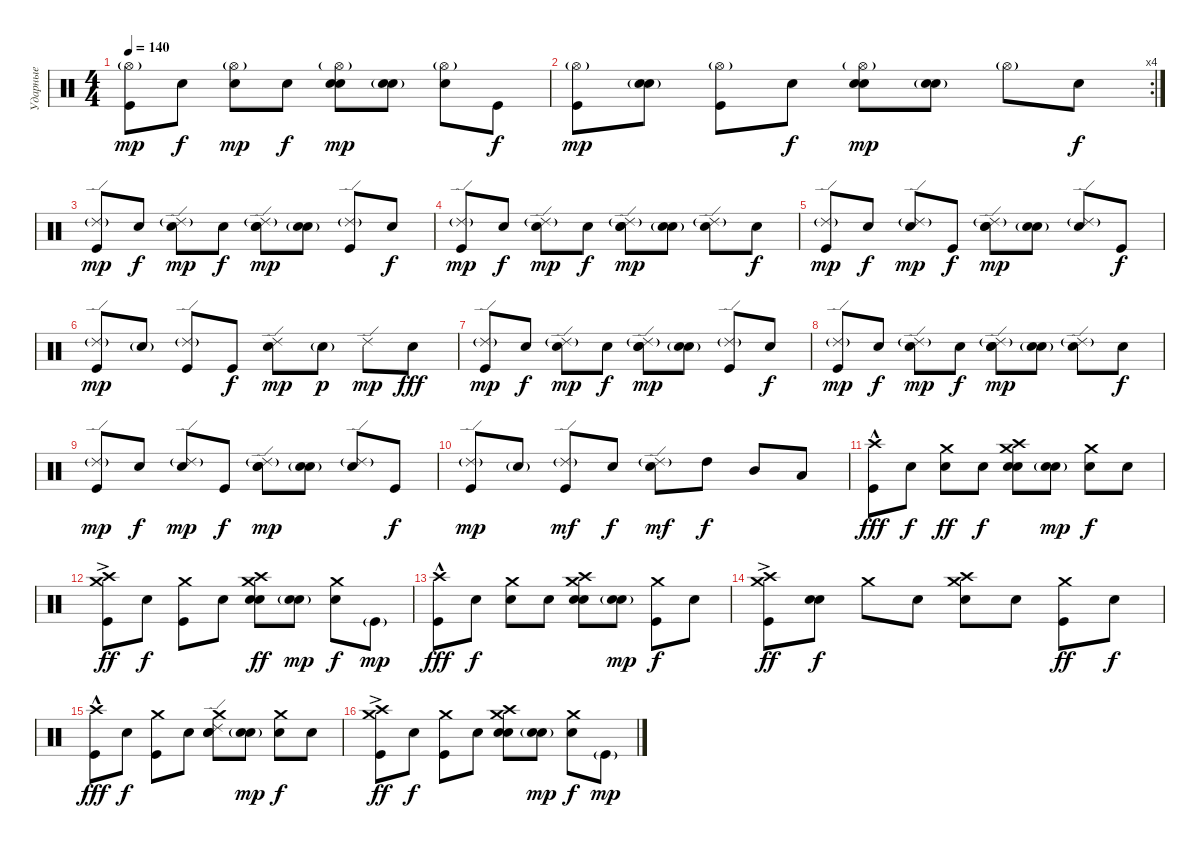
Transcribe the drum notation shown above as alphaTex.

\track ("Ударные" "Ударные") {instrument percussion}
\staff
\articulation defaults
\ts (4 4)
\tempo 140
\clef neutral
\ks c
("Hi-Hat (open)"{g} "Kick (hit)").8{dy mp} "Snare (hit)".8{dy f} ("Hi-Hat (open)"{g} "Snare (hit)").8{dy mp} "Snare (hit)".8{dy f} ("Hi-Hat (open)"{g} "Electric Snare (hit)" "Snare (hit)").8{dy mp} ("Electric Snare (hit)"{g} "Snare (hit)").8 ("Hi-Hat (open)"{g} "Snare (hit)").8 "Kick (hit)".8{dy f} |
\rc 4
("Hi-Hat (open)"{g} "Kick (hit)").8{dy mp} ("Electric Snare (hit)"{g} "Snare (hit)").8 ("Hi-Hat (open)"{g} "Kick (hit)").8 "Snare (hit)".8{dy f} ("Hi-Hat (open)"{g} "Electric Snare (hit)" "Snare (hit)").8{dy mp} ("Electric Snare (hit)"{g} "Snare (hit)").8 "Hi-Hat (open)"{g}.8 "Snare (hit)".8{dy f} |
("Ride (edge) 2"{g} "Kick (hit)").8{dy mp} "Snare (hit)".8{dy f} ("Ride (edge) 2"{g} "Snare (hit)").8{dy mp} "Snare (hit)".8{dy f} ("Ride (edge) 2"{g} "Electric Snare (hit)" "Snare (hit)").8{dy mp} ("Electric Snare (hit)"{g} "Snare (hit)").8 ("Ride (edge) 2"{g} "Kick (hit)").8 "Snare (hit)".8{dy f} |
("Ride (edge) 2"{g} "Kick (hit)").8{dy mp} "Snare (hit)".8{dy f} ("Ride (edge) 2"{g} "Snare (hit)").8{dy mp} "Snare (hit)".8{dy f} ("Ride (edge) 2"{g} "Electric Snare (hit)" "Snare (hit)").8{dy mp} ("Electric Snare (hit)"{g} "Snare (hit)").8 ("Ride (edge) 2"{g} "Snare (hit)").8 "Snare (hit)".8{dy f} |
("Ride (edge) 2"{g} "Kick (hit)").8{dy mp} "Snare (hit)".8{dy f} ("Ride (edge) 2"{g} "Snare (hit)").8{dy mp} "Kick (hit)".8{dy f} ("Ride (edge) 2"{g} "Electric Snare (hit)" "Snare (hit)").8{dy mp} ("Electric Snare (hit)"{g} "Snare (hit)").8 ("Ride (edge) 2"{g} "Snare (hit)").8 "Kick (hit)".8{dy f} |
("Ride (edge) 2"{g} "Kick (hit)").8{dy mp} "Electric Snare (hit)"{g}.8 ("Ride (edge) 2"{g} "Kick (hit)").8 "Kick (hit)".8{dy f} ("Ride (edge) 2" "Electric Snare (hit)").8{dy mp} "Electric Snare (hit)"{g}.8{dy p} "Ride (edge) 2".8{dy mp} "Snare (hit)".8{dy fff} |
("Ride (edge) 2"{g} "Kick (hit)").8{dy mp} "Snare (hit)".8{dy f} ("Ride (edge) 2"{g} "Snare (hit)").8{dy mp} "Snare (hit)".8{dy f} ("Ride (edge) 2"{g} "Electric Snare (hit)" "Snare (hit)").8{dy mp} ("Electric Snare (hit)"{g} "Snare (hit)").8 ("Ride (edge) 2"{g} "Kick (hit)").8 "Snare (hit)".8{dy f} |
("Ride (edge) 2"{g} "Kick (hit)").8{dy mp} "Snare (hit)".8{dy f} ("Ride (edge) 2"{g} "Snare (hit)").8{dy mp} "Snare (hit)".8{dy f} ("Ride (edge) 2"{g} "Electric Snare (hit)" "Snare (hit)").8{dy mp} ("Electric Snare (hit)"{g} "Snare (hit)").8 ("Ride (edge) 2"{g} "Snare (hit)").8 "Snare (hit)".8{dy f} |
("Ride (edge) 2"{g} "Kick (hit)").8{dy mp} "Snare (hit)".8{dy f} ("Ride (edge) 2"{g} "Snare (hit)").8{dy mp} "Kick (hit)".8{dy f} ("Ride (edge) 2"{g} "Electric Snare (hit)" "Snare (hit)").8{dy mp} ("Electric Snare (hit)"{g} "Snare (hit)").8 ("Ride (edge) 2"{g} "Snare (hit)").8 "Kick (hit)".8{dy f} |
("Ride (edge) 2"{g} "Kick (hit)").8{dy mp} "Electric Snare (hit)"{g}.8 ("Ride (edge) 2"{g} "Kick (hit)").8{dy mf} "Snare (hit)".8{dy f} ("Ride (edge) 2"{g} "Electric Snare (hit)").8{dy mf} "High Tom (hit)".8{dy f} "Mid Tom (hit)".8 "Low Tom (hit)".8 |
("Crash high (hit)" "Kick (hit)"{hac}).8{dy fff} "Snare (hit)".8{dy f} ("Crash medium (hit)" "Snare (hit)").8{dy ff} "Snare (hit)".8{dy f} ("Crash high (hit)" "Crash medium (hit)" "Electric Snare (hit)" "Snare (hit)").8 ("Electric Snare (hit)"{g} "Snare (hit)").8{dy mp} ("Crash medium (hit)" "Snare (hit)").8{dy f} "Snare (hit)".8 |
("Crash high (hit)" "Crash medium (hit)" "Kick (hit)"{ac}).8{dy ff} "Snare (hit)".8{dy f} ("Crash medium (hit)" "Kick (hit)").8 "Snare (hit)".8 ("Crash high (hit)" "Crash medium (hit)" "Electric Snare (hit)" "Snare (hit)").8{dy ff} ("Electric Snare (hit)"{g} "Snare (hit)").8{dy mp} ("Crash medium (hit)" "Snare (hit)").8{dy f} "Kick (hit)"{g}.8{dy mp} |
("Crash high (hit)" "Kick (hit)"{hac}).8{dy fff} "Snare (hit)".8{dy f} ("Crash medium (hit)" "Snare (hit)").8 "Snare (hit)".8 ("Crash high (hit)" "Crash medium (hit)" "Electric Snare (hit)" "Snare (hit)").8 ("Electric Snare (hit)"{g} "Snare (hit)").8{dy mp} ("Crash medium (hit)" "Kick (hit)").8{dy f} "Snare (hit)".8 |
("Crash high (hit)" "Crash medium (hit)" "Kick (hit)"{ac}).8{dy ff} ("Snare (hit)" "Electric Snare (hit)").8{dy f} "Crash medium (hit)".8 "Snare (hit)".8 ("Crash high (hit)" "Crash medium (hit)" "Electric Snare (hit)").8 "Snare (hit)".8 ("Crash medium (hit)" "Kick (hit)").8{dy ff} "Snare (hit)".8{dy f} |
("Crash high (hit)" "Kick (hit)"{hac}).8{dy fff} "Snare (hit)".8{dy f} ("Crash medium (hit)" "Kick (hit)").8 "Snare (hit)".8 ("Ride (edge) 2" "Crash medium (hit)" "Electric Snare (hit)" "Snare (hit)").8 ("Electric Snare (hit)"{g} "Snare (hit)").8{dy mp} ("Crash medium (hit)" "Snare (hit)").8{dy f} "Snare (hit)".8 |
("Crash high (hit)" "Crash medium (hit)" "Kick (hit)"{ac}).8{dy ff} "Snare (hit)".8{dy f} ("Crash medium (hit)" "Kick (hit)").8 "Snare (hit)".8 ("Crash high (hit)" "Crash medium (hit)" "Electric Snare (hit)" "Snare (hit)").8 ("Electric Snare (hit)"{g} "Snare (hit)").8{dy mp} ("Crash medium (hit)" "Snare (hit)").8{dy f} "Kick (hit)"{g}.8{dy mp}
